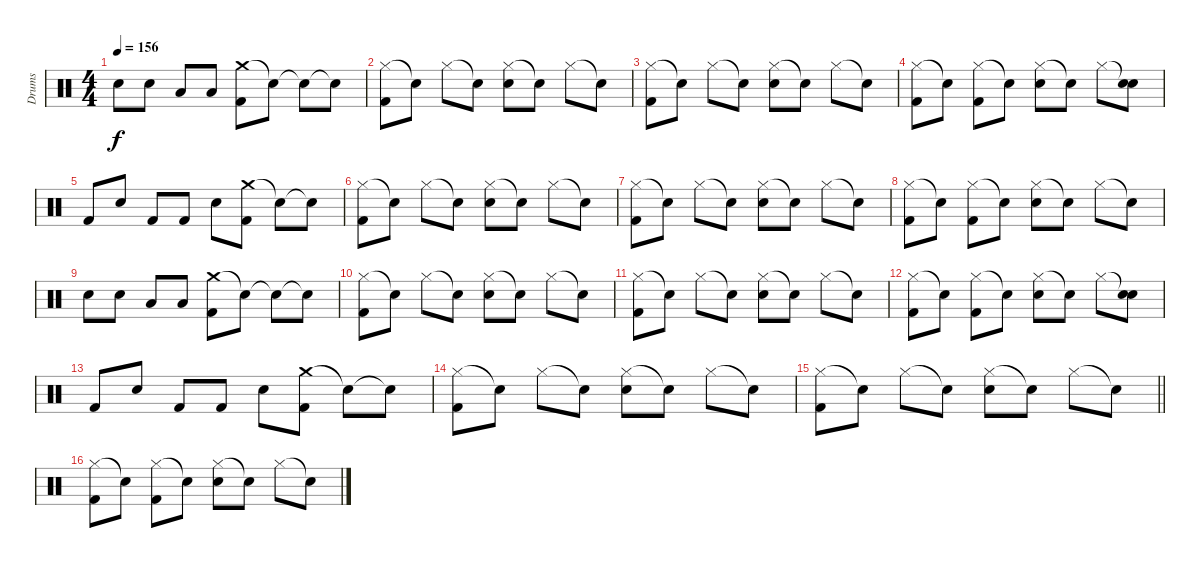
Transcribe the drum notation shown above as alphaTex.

\track ("Drums" "Drums") {instrument percussion}
\staff {score}
\articulation defaults
\ts (4 4)
\tempo 156
\clef neutral
\ks c "Snare (hit) 2".8{dy f} "Snare (hit) 2".8 "Low Tom (hit)".8 "Low Tom (hit)".8
("Crash medium (hit)" "Kick (hit) 2").8 "Snare (hit)"{t}.8 "Snare (hit)"{t}.8 "Snare (hit)"{t}.8 |
("Hi-Hat (closed)" "Kick (hit) 2").8 "Snare (hit)"{t}.8 "Hi-Hat (closed)".8 "Snare (hit)"{t}.8 ("Hi-Hat (closed)" "Snare (hit) 2").8 "Snare (hit)"{t}.8 "Hi-Hat (closed)".8 "Snare (hit)"{t}.8 |
("Hi-Hat (closed)" "Kick (hit) 2").8 "Snare (hit)"{t}.8 "Hi-Hat (closed)".8 "Snare (hit)"{t}.8 ("Hi-Hat (closed)" "Snare (hit) 2").8 "Snare (hit)"{t}.8 "Hi-Hat (closed)".8 "Snare (hit)"{t}.8 |
("Hi-Hat (closed)" "Kick (hit) 2").8 "Snare (hit)"{t}.8 ("Hi-Hat (closed)" "Kick (hit) 2").8 "Snare (hit)"{t}.8 ("Hi-Hat (closed)" "Snare (hit) 2").8 "Snare (hit)"{t}.8 "Hi-Hat (closed)".8 ("Snare (hit)"{t} "Snare (hit) 2").8 |
"Kick (hit) 2".8 "Snare (hit) 2".8 "Kick (hit) 2".8 "Kick (hit) 2".8 "Snare (hit) 2".8 ("Crash medium (hit)" "Kick (hit) 2").8 "Snare (hit)"{t}.8 "Snare (hit)"{t}.8 |
("Hi-Hat (closed)" "Kick (hit) 2").8 "Snare (hit)"{t}.8 "Hi-Hat (closed)".8 "Snare (hit)"{t}.8 ("Hi-Hat (closed)" "Snare (hit) 2").8 "Snare (hit)"{t}.8 "Hi-Hat (closed)".8 "Snare (hit)"{t}.8 |
("Hi-Hat (closed)" "Kick (hit) 2").8 "Snare (hit)"{t}.8 "Hi-Hat (closed)".8 "Snare (hit)"{t}.8 ("Hi-Hat (closed)" "Snare (hit) 2").8 "Snare (hit)"{t}.8 "Hi-Hat (closed)".8 "Snare (hit)"{t}.8 |
("Hi-Hat (closed)" "Kick (hit) 2").8 "Snare (hit)"{t}.8 ("Hi-Hat (closed)" "Kick (hit) 2").8 "Snare (hit)"{t}.8 ("Hi-Hat (closed)" "Snare (hit) 2").8 "Snare (hit)"{t}.8 "Hi-Hat (closed)".8 "Snare (hit)"{t}.8 |
"Snare (hit) 2".8 "Snare (hit) 2".8 "Low Tom (hit)".8 "Low Tom (hit)".8 ("Crash medium (hit)" "Kick (hit) 2").8 "Snare (hit)"{t}.8 "Snare (hit)"{t}.8 "Snare (hit)"{t}.8 |
("Hi-Hat (closed)" "Kick (hit) 2").8 "Snare (hit)"{t}.8 "Hi-Hat (closed)".8 "Snare (hit)"{t}.8 ("Hi-Hat (closed)" "Snare (hit) 2").8 "Snare (hit)"{t}.8 "Hi-Hat (closed)".8 "Snare (hit)"{t}.8 |
("Hi-Hat (closed)" "Kick (hit) 2").8 "Snare (hit)"{t}.8 "Hi-Hat (closed)".8 "Snare (hit)"{t}.8 ("Hi-Hat (closed)" "Snare (hit) 2").8 "Snare (hit)"{t}.8 "Hi-Hat (closed)".8 "Snare (hit)"{t}.8 |
("Hi-Hat (closed)" "Kick (hit) 2").8 "Snare (hit)"{t}.8 ("Hi-Hat (closed)" "Kick (hit) 2").8 "Snare (hit)"{t}.8 ("Hi-Hat (closed)" "Snare (hit) 2").8 "Snare (hit)"{t}.8 "Hi-Hat (closed)".8 ("Snare (hit)"{t} "Snare (hit) 2").8 |
"Kick (hit) 2".8 "Snare (hit) 2".8 "Kick (hit) 2".8 "Kick (hit) 2".8 "Snare (hit) 2".8 ("Crash medium (hit)" "Kick (hit) 2").8 "Snare (hit)"{t}.8 "Snare (hit)"{t}.8 |
("Hi-Hat (closed)" "Kick (hit) 2").8 "Snare (hit)"{t}.8 "Hi-Hat (closed)".8 "Snare (hit)"{t}.8 ("Hi-Hat (closed)" "Snare (hit) 2").8 "Snare (hit)"{t}.8 "Hi-Hat (closed)".8 "Snare (hit)"{t}.8 |
\barLineRight lightlight
("Hi-Hat (closed)" "Kick (hit) 2").8 "Snare (hit)"{t}.8 "Hi-Hat (closed)".8 "Snare (hit)"{t}.8 ("Hi-Hat (closed)" "Snare (hit) 2").8 "Snare (hit)"{t}.8 "Hi-Hat (closed)".8 "Snare (hit)"{t}.8 |
("Hi-Hat (closed)" "Kick (hit) 2").8 "Snare (hit)"{t}.8 ("Hi-Hat (closed)" "Kick (hit) 2").8 "Snare (hit)"{t}.8 ("Hi-Hat (closed)" "Snare (hit) 2").8 "Snare (hit)"{t}.8 "Hi-Hat (closed)".8 "Snare (hit)"{t}.8
